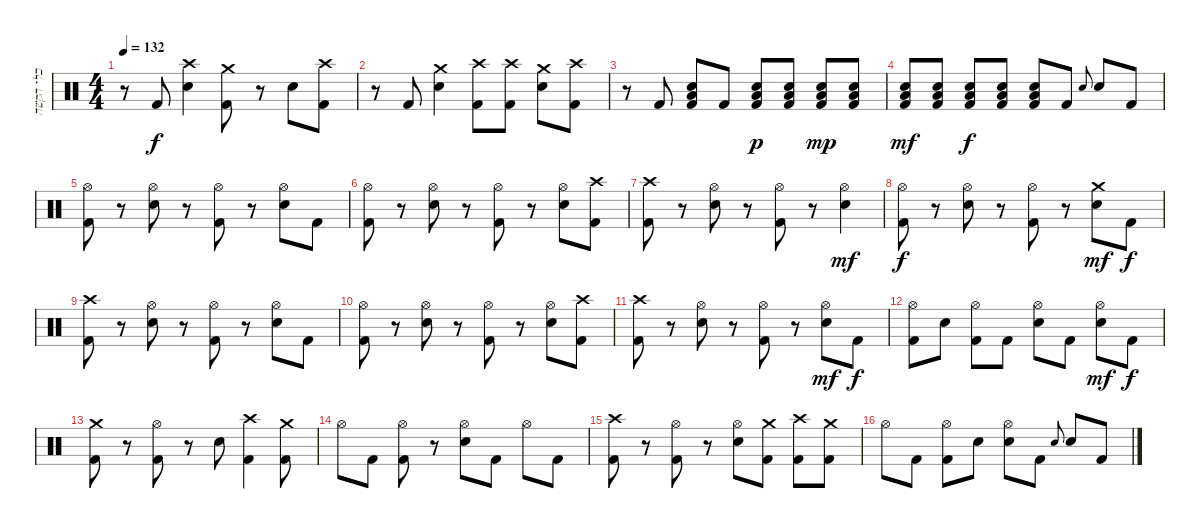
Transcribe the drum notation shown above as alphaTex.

\track ("כלי הקשה" "כלי הקשה") {instrument percussion}
\staff {score}
\articulation defaults
\ts (4 4)
\tempo 132
\clef neutral
\ks c
r.8{dy f} "Kick (hit) 2".8 ("Crash high (hit)" "Electric Snare (hit)").4 ("Crash medium (hit)" "Kick (hit) 2").8 r.8 "Electric Snare (hit)".8 ("Crash high (hit)" "Kick (hit) 2").8 |
r.8 "Kick (hit) 2".8 ("Crash medium (hit)" "Electric Snare (hit)").4 ("Crash high (hit)" "Kick (hit) 2").8 ("Crash high (hit)" "Kick (hit) 2").8 ("Crash medium (hit)" "Electric Snare (hit)").8 ("Crash high (hit)" "Kick (hit) 2").8 |
r.8 "Kick (hit) 2".8 ("Low Floor Tom (hit)" "Electric Snare (hit)" "Kick (hit) 2").8 "Kick (hit) 2".8 ("Low Floor Tom (hit)" "Electric Snare (hit)" "Kick (hit) 2").8{dy p} ("Low Floor Tom (hit)" "Electric Snare (hit)" "Kick (hit) 2").8 ("Low Floor Tom (hit)" "Electric Snare (hit)" "Kick (hit) 2").8{dy mp} ("Low Floor Tom (hit)" "Electric Snare (hit)" "Kick (hit) 2").8 |
("Low Floor Tom (hit)" "Electric Snare (hit)" "Kick (hit) 2").8{dy mf} ("Low Floor Tom (hit)" "Electric Snare (hit)" "Kick (hit) 2").8 ("Low Floor Tom (hit)" "Electric Snare (hit)" "Kick (hit) 2").8{dy f} ("Low Floor Tom (hit)" "Electric Snare (hit)" "Kick (hit) 2").8 ("Low Floor Tom (hit)" "Electric Snare (hit)" "Kick (hit) 2").8 "Kick (hit) 2".8 "Electric Snare (hit)".8{gr onbeat} "Electric Snare (hit)".8 "Kick (hit) 2".8 |
("Hi-Hat (open)" "Kick (hit) 2").8 r.8 ("Hi-Hat (open)" "Electric Snare (hit)").8 r.8 ("Hi-Hat (open)" "Kick (hit) 2").8 r.8 ("Hi-Hat (open)" "Electric Snare (hit)").8 "Kick (hit) 2".8 |
("Hi-Hat (open)" "Kick (hit) 2").8 r.8 ("Hi-Hat (open)" "Electric Snare (hit)").8 r.8 ("Hi-Hat (open)" "Kick (hit) 2").8 r.8 ("Hi-Hat (open)" "Electric Snare (hit)").8 ("Crash high (hit)" "Kick (hit) 2").8 |
("Crash high (hit)" "Kick (hit) 2").8 r.8 ("Hi-Hat (open)" "Electric Snare (hit)").8 r.8 ("Hi-Hat (open)" "Kick (hit) 2").8 r.8 ("Hi-Hat (open)" "Electric Snare (hit)").4{dy mf} |
("Hi-Hat (open)" "Kick (hit) 2").8{dy f} r.8 ("Hi-Hat (open)" "Electric Snare (hit)").8 r.8 ("Hi-Hat (open)" "Kick (hit) 2").8 r.8 ("Crash medium (hit)" "Electric Snare (hit)").8{dy mf} "Kick (hit) 2".8{dy f} |
("Crash high (hit)" "Kick (hit) 2").8 r.8 ("Hi-Hat (open)" "Electric Snare (hit)").8 r.8 ("Hi-Hat (open)" "Kick (hit) 2").8 r.8 ("Hi-Hat (open)" "Electric Snare (hit)").8 "Kick (hit) 2".8 |
("Hi-Hat (open)" "Kick (hit) 2").8 r.8 ("Hi-Hat (open)" "Electric Snare (hit)").8 r.8 ("Hi-Hat (open)" "Kick (hit) 2").8 r.8 ("Hi-Hat (open)" "Electric Snare (hit)").8 ("Crash high (hit)" "Kick (hit) 2").8 |
("Crash high (hit)" "Kick (hit) 2").8 r.8 ("Hi-Hat (open)" "Electric Snare (hit)").8 r.8 ("Hi-Hat (open)" "Kick (hit) 2").8 r.8 ("Hi-Hat (open)" "Electric Snare (hit)").8{dy mf} "Kick (hit) 2".8{dy f} |
("Hi-Hat (open)" "Kick (hit) 2").8 "Electric Snare (hit)".8 ("Hi-Hat (open)" "Kick (hit) 2").8 "Kick (hit) 2".8 ("Hi-Hat (open)" "Electric Snare (hit)").8 "Kick (hit) 2".8 ("Hi-Hat (open)" "Electric Snare (hit)").8{dy mf} "Kick (hit) 2".8{dy f} |
("Crash medium (hit)" "Kick (hit) 2").8 r.8 ("Hi-Hat (open)" "Kick (hit) 2").8 r.8 "Electric Snare (hit)".8 ("Crash high (hit)" "Kick (hit) 2").4 ("Crash medium (hit)" "Kick (hit) 2").8 |
"Hi-Hat (open)".8 "Kick (hit) 2".8 ("Hi-Hat (open)" "Kick (hit) 2").8 r.8 ("Hi-Hat (open)" "Electric Snare (hit)").8 "Kick (hit) 2".8 "Hi-Hat (open)".8 "Kick (hit) 2".8 |
("Crash high (hit)" "Kick (hit) 2").8 r.8 ("Hi-Hat (open)" "Kick (hit) 2").8 r.8 ("Hi-Hat (open)" "Electric Snare (hit)").8 ("Crash medium (hit)" "Kick (hit) 2").8 ("Crash high (hit)" "Kick (hit) 2").8 ("Crash medium (hit)" "Kick (hit) 2").8 |
"Hi-Hat (open)".8 "Kick (hit) 2".8 ("Hi-Hat (open)" "Kick (hit) 2").8 "Electric Snare (hit)".8 ("Hi-Hat (open)" "Electric Snare (hit)").8 "Kick (hit) 2".8 "Electric Snare (hit)".8{gr onbeat} "Electric Snare (hit)".8 "Kick (hit) 2".8
